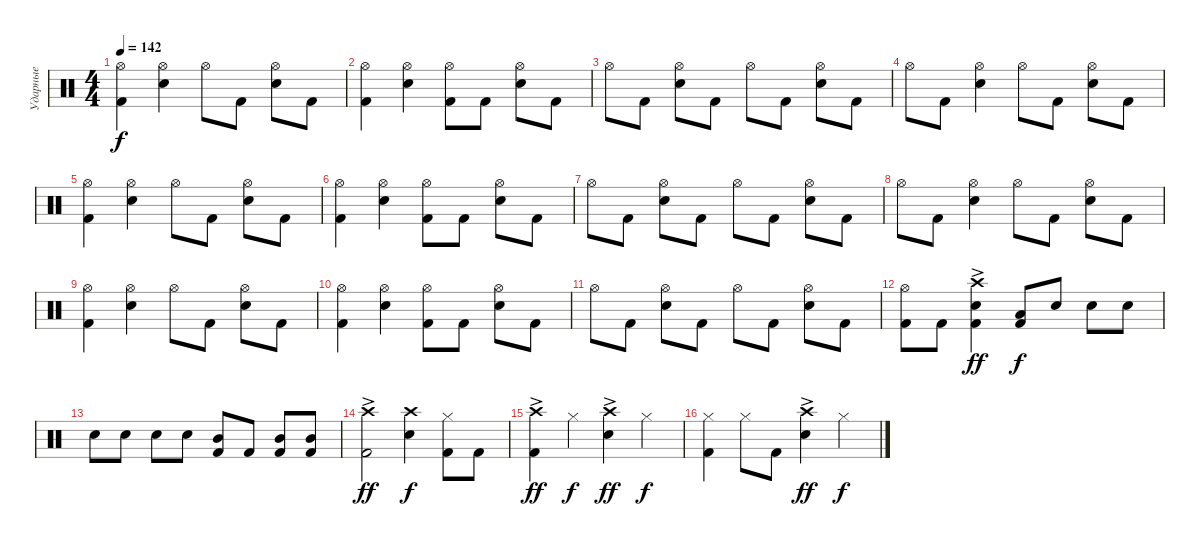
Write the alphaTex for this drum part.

\track ("Ударные" "Ударные") {instrument percussion}
\staff {score}
\articulation defaults
\ts (4 4)
\tempo 142
\clef neutral
\ks c
("Kick (hit) 2" "Hi-Hat (open)").4{dy f} ("Snare (hit) 2" "Hi-Hat (open)").4 "Hi-Hat (open)".8 "Kick (hit) 2".8 ("Snare (hit) 2" "Hi-Hat (open)").8 "Kick (hit) 2".8 |
("Kick (hit) 2" "Hi-Hat (open)").4 ("Snare (hit) 2" "Hi-Hat (open)").4 ("Kick (hit) 2" "Hi-Hat (open)").8 "Kick (hit) 2".8 ("Snare (hit) 2" "Hi-Hat (open)").8 "Kick (hit) 2".8 |
"Hi-Hat (open)".8 "Kick (hit) 2".8 ("Snare (hit) 2" "Hi-Hat (open)").8 "Kick (hit) 2".8 "Hi-Hat (open)".8 "Kick (hit) 2".8 ("Snare (hit) 2" "Hi-Hat (open)").8 "Kick (hit) 2".8 |
"Hi-Hat (open)".8 "Kick (hit) 2".8 ("Snare (hit) 2" "Hi-Hat (open)").4 "Hi-Hat (open)".8 "Kick (hit) 2".8 ("Snare (hit) 2" "Hi-Hat (open)").8 "Kick (hit) 2".8 |
("Kick (hit) 2" "Hi-Hat (open)").4 ("Snare (hit) 2" "Hi-Hat (open)").4 "Hi-Hat (open)".8 "Kick (hit) 2".8 ("Snare (hit) 2" "Hi-Hat (open)").8 "Kick (hit) 2".8 |
("Kick (hit) 2" "Hi-Hat (open)").4 ("Snare (hit) 2" "Hi-Hat (open)").4 ("Kick (hit) 2" "Hi-Hat (open)").8 "Kick (hit) 2".8 ("Snare (hit) 2" "Hi-Hat (open)").8 "Kick (hit) 2".8 |
"Hi-Hat (open)".8 "Kick (hit) 2".8 ("Snare (hit) 2" "Hi-Hat (open)").8 "Kick (hit) 2".8 "Hi-Hat (open)".8 "Kick (hit) 2".8 ("Snare (hit) 2" "Hi-Hat (open)").8 "Kick (hit) 2".8 |
"Hi-Hat (open)".8 "Kick (hit) 2".8 ("Snare (hit) 2" "Hi-Hat (open)").4 "Hi-Hat (open)".8 "Kick (hit) 2".8 ("Snare (hit) 2" "Hi-Hat (open)").8 "Kick (hit) 2".8 |
("Kick (hit) 2" "Hi-Hat (open)").4 ("Snare (hit) 2" "Hi-Hat (open)").4 "Hi-Hat (open)".8 "Kick (hit) 2".8 ("Snare (hit) 2" "Hi-Hat (open)").8 "Kick (hit) 2".8 |
("Kick (hit) 2" "Hi-Hat (open)").4 ("Snare (hit) 2" "Hi-Hat (open)").4 ("Kick (hit) 2" "Hi-Hat (open)").8 "Kick (hit) 2".8 ("Snare (hit) 2" "Hi-Hat (open)").8 "Kick (hit) 2".8 |
"Hi-Hat (open)".8 "Kick (hit) 2".8 ("Snare (hit) 2" "Hi-Hat (open)").8 "Kick (hit) 2".8 "Hi-Hat (open)".8 "Kick (hit) 2".8 ("Snare (hit) 2" "Hi-Hat (open)").8 "Kick (hit) 2".8 |
("Kick (hit) 2" "Hi-Hat (open)").8 "Kick (hit) 2".8 ("Kick (hit) 2" "Snare (hit) 2" "Crash high (hit)"{ac}).4{dy ff} ("Kick (hit) 2" "Low Tom (hit)").8{dy f} "Snare (hit) 2".8 "Snare (hit) 2".8 "Snare (hit) 2".8 |
"Snare (hit) 2".8 "Snare (hit) 2".8 "Snare (hit) 2".8 "Snare (hit) 2".8 ("Mid Tom (hit)" "Kick (hit) 2").8 "Kick (hit) 2".8 ("Mid Tom (hit)" "Kick (hit) 2").8 ("Mid Tom (hit)" "Kick (hit) 2").8 |
("Kick (hit) 2" "Crash high (hit)"{ac}).2{dy ff} ("Snare (hit) 2" "Crash high (hit)").4{dy f} ("Kick (hit) 2" "Hi-Hat (closed)").8 "Kick (hit) 2".8 |
("Kick (hit) 2" "Crash high (hit)"{ac}).4{dy ff} "Hi-Hat (closed)".4{dy f} ("Snare (hit) 2" "Crash high (hit)"{ac}).4{dy ff} "Hi-Hat (closed)".4{dy f} |
("Kick (hit) 2" "Hi-Hat (closed)").4 "Hi-Hat (closed)".8 "Kick (hit) 2".8 ("Snare (hit) 2" "Crash high (hit)"{ac}).4{dy ff} "Hi-Hat (closed)".4{dy f}
